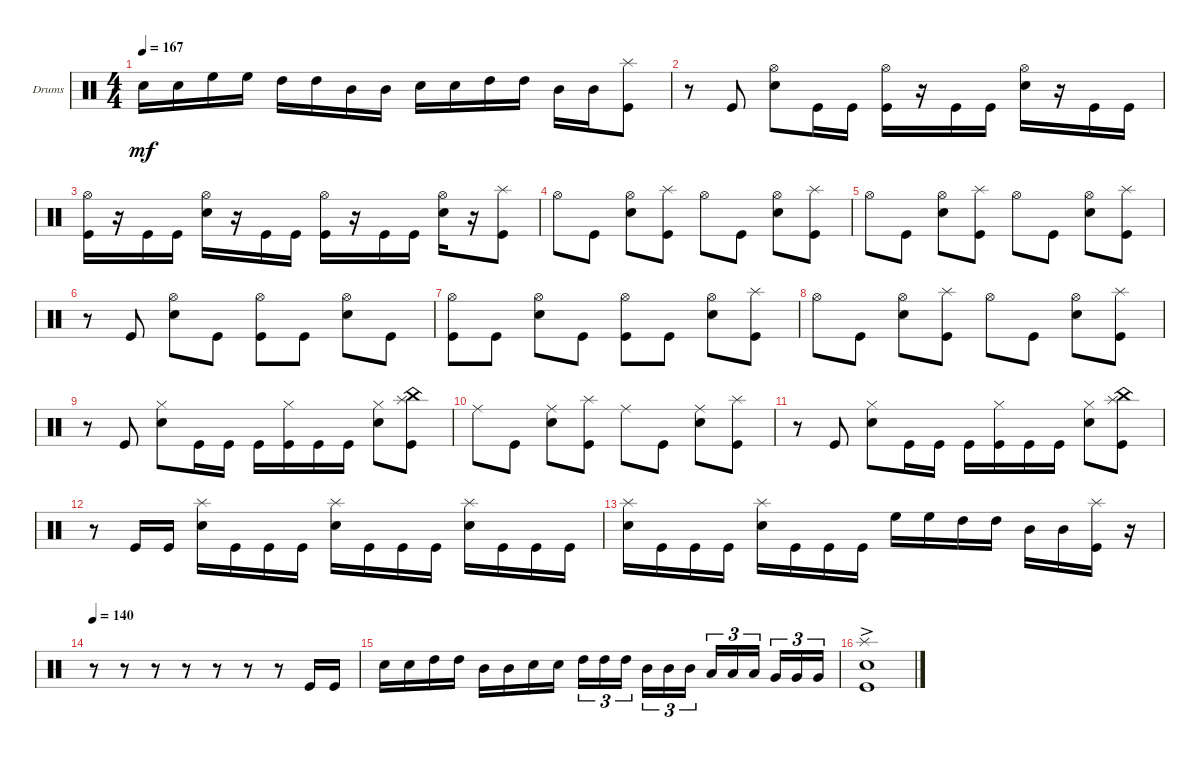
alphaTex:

\bracketExtendMode groupsimilarinstruments
\firstSystemTrackNameOrientation horizontal
\otherSystemsTrackNameOrientation horizontal
\track ("Drumkit" "Drums") {instrument percussion}
\staff {score}
\articulation defaults
\ts (4 4)
\tempo 167
\clef neutral
\ks c "Snare (hit) 2".16{dy mf} "Snare (hit) 2".16 "High Floor Tom (hit)".16 "High Floor Tom (hit)".16 "High Tom (hit)".16 "High Tom (hit)".16 "Mid Tom (hit)".16 "Mid Tom (hit)".16 "Snare (hit) 2".16 "Snare (hit) 2".16 "High Tom (hit)".16 "High Tom (hit)".16 "Mid Tom (hit)".16 "Mid Tom (hit)".16
("Kick (hit)" "Splash (hit)").8 |
r.8 "Kick (hit)".8 ("Snare (hit) 2" "Hi-Hat (open)").8 "Kick (hit)".16 "Kick (hit)".16 ("Kick (hit)" "Hi-Hat (open)").16 r.16 "Kick (hit)".16 "Kick (hit)".16 ("Snare (hit) 2" "Hi-Hat (open)").16 r.16 "Kick (hit)".16 "Kick (hit)".16 |
("Kick (hit)" "Hi-Hat (open)").16 r.16 "Kick (hit)".16 "Kick (hit)".16 ("Snare (hit) 2" "Hi-Hat (open)").16 r.16 "Kick (hit)".16 "Kick (hit)".16 ("Kick (hit)" "Hi-Hat (open)").16 r.16 "Kick (hit)".16 "Kick (hit)".16 ("Snare (hit) 2" "Hi-Hat (open)").16 r.16 ("Kick (hit)" "Splash (hit)").8 |
"Hi-Hat (open)".8 "Kick (hit)".8 ("Snare (hit) 2" "Hi-Hat (open)").8 ("Kick (hit)" "Splash (hit)").8 "Hi-Hat (open)".8 "Kick (hit)".8 ("Snare (hit) 2" "Hi-Hat (open)").8 ("Kick (hit)" "Splash (hit)").8 |
"Hi-Hat (open)".8 "Kick (hit)".8 ("Snare (hit) 2" "Hi-Hat (open)").8 ("Kick (hit)" "Splash (hit)").8 "Hi-Hat (open)".8 "Kick (hit)".8 ("Snare (hit) 2" "Hi-Hat (open)").8 ("Kick (hit)" "Splash (hit)").8 |
r.8 "Kick (hit)".8 ("Snare (hit) 2" "Hi-Hat (open)").8 "Kick (hit)".8 ("Kick (hit)" "Hi-Hat (open)").8 "Kick (hit)".8 ("Snare (hit) 2" "Hi-Hat (open)").8 "Kick (hit)".8 |
("Kick (hit)" "Hi-Hat (open)").8 "Kick (hit)".8 ("Snare (hit) 2" "Hi-Hat (open)").8 "Kick (hit)".8 ("Kick (hit)" "Hi-Hat (open)").8 "Kick (hit)".8 ("Snare (hit) 2" "Hi-Hat (open)").8 ("Kick (hit)" "Splash (hit)").8 |
"Hi-Hat (open)".8 "Kick (hit)".8 ("Snare (hit) 2" "Hi-Hat (open)").8 ("Kick (hit)" "Splash (hit)").8 "Hi-Hat (open)".8 "Kick (hit)".8 ("Snare (hit) 2" "Hi-Hat (open)").8 ("Kick (hit)" "Splash (hit)").8 |
r.8 "Kick (hit)".8 ("Snare (hit) 2" "Hi-Hat (closed)").8 "Kick (hit)".16 "Kick (hit)".16 "Kick (hit)".16 ("Kick (hit)" "Hi-Hat (closed)").16 "Kick (hit)".16 "Kick (hit)".16 ("Snare (hit) 2" "Hi-Hat (closed)").8 ("Kick (hit)" "China (hit)" "Splash (hit)").8 |
"Ride (middle)".8 "Kick (hit)".8 ("Snare (hit) 2" "Ride (middle)").8 ("Kick (hit)" "Splash (hit)").8 "Ride (middle)".8 "Kick (hit)".8 ("Snare (hit) 2" "Ride (middle)").8 ("Kick (hit)" "Splash (hit)").8 |
r.8 "Kick (hit)".8 ("Snare (hit) 2" "Hi-Hat (closed)").8 "Kick (hit)".16 "Kick (hit)".16 "Kick (hit)".16 ("Kick (hit)" "Hi-Hat (closed)").16 "Kick (hit)".16 "Kick (hit)".16 ("Snare (hit) 2" "Hi-Hat (closed)").8 ("Kick (hit)" "China (hit)" "Splash (hit)").8 |
r.8 "Kick (hit)".16 "Kick (hit)".16 ("Snare (hit) 2" "Splash (hit)").16 "Kick (hit)".16 "Kick (hit)".16 "Kick (hit)".16 ("Snare (hit) 2" "Splash (hit)").16 "Kick (hit)".16 "Kick (hit)".16 "Kick (hit)".16 ("Snare (hit) 2" "Splash (hit)").16 "Kick (hit)".16 "Kick (hit)".16 "Kick (hit)".16 |
("Snare (hit) 2" "Splash (hit)").16 "Kick (hit)".16 "Kick (hit)".16 "Kick (hit)".16 ("Snare (hit) 2" "Splash (hit)").16 "Kick (hit)".16 "Kick (hit)".16 "Kick (hit)".16 "High Floor Tom (hit)".16 "High Floor Tom (hit)".16 "High Tom (hit)".16 "High Tom (hit)".16 "Mid Tom (hit)".16 "Mid Tom (hit)".16 ("Kick (hit)" "Splash (hit)").16 r.16 |
\tempo 140
r.8 r.8 r.8 r.8 r.8 r.8 r.8 "Kick (hit)".16 "Kick (hit)".16 |
"Snare (hit) 2".16 "Snare (hit) 2".16 "High Tom (hit)".16 "High Tom (hit)".16 "Mid Tom (hit)".16 "Mid Tom (hit)".16 "Snare (hit) 2".16 "Snare (hit) 2".16 "High Tom (hit)".16{tu (3 2)} "High Tom (hit)".16{tu (3 2)} "High Tom (hit)".16{tu (3 2)} "Mid Tom (hit)".16{tu (3 2)} "Mid Tom (hit)".16{tu (3 2)} "Mid Tom (hit)".16{tu (3 2)} "Low Tom (hit)".16{tu (3 2)} "Low Tom (hit)".16{tu (3 2)} "Low Tom (hit)".16{tu (3 2)} "Very Low Tom (hit)".16{tu (3 2)} "Very Low Tom (hit)".16{tu (3 2)} "Very Low Tom (hit)".16{tu (3 2)} |
("Kick (hit)" "Splash (hit)" "Snare (hit) 2"{ac}).1
